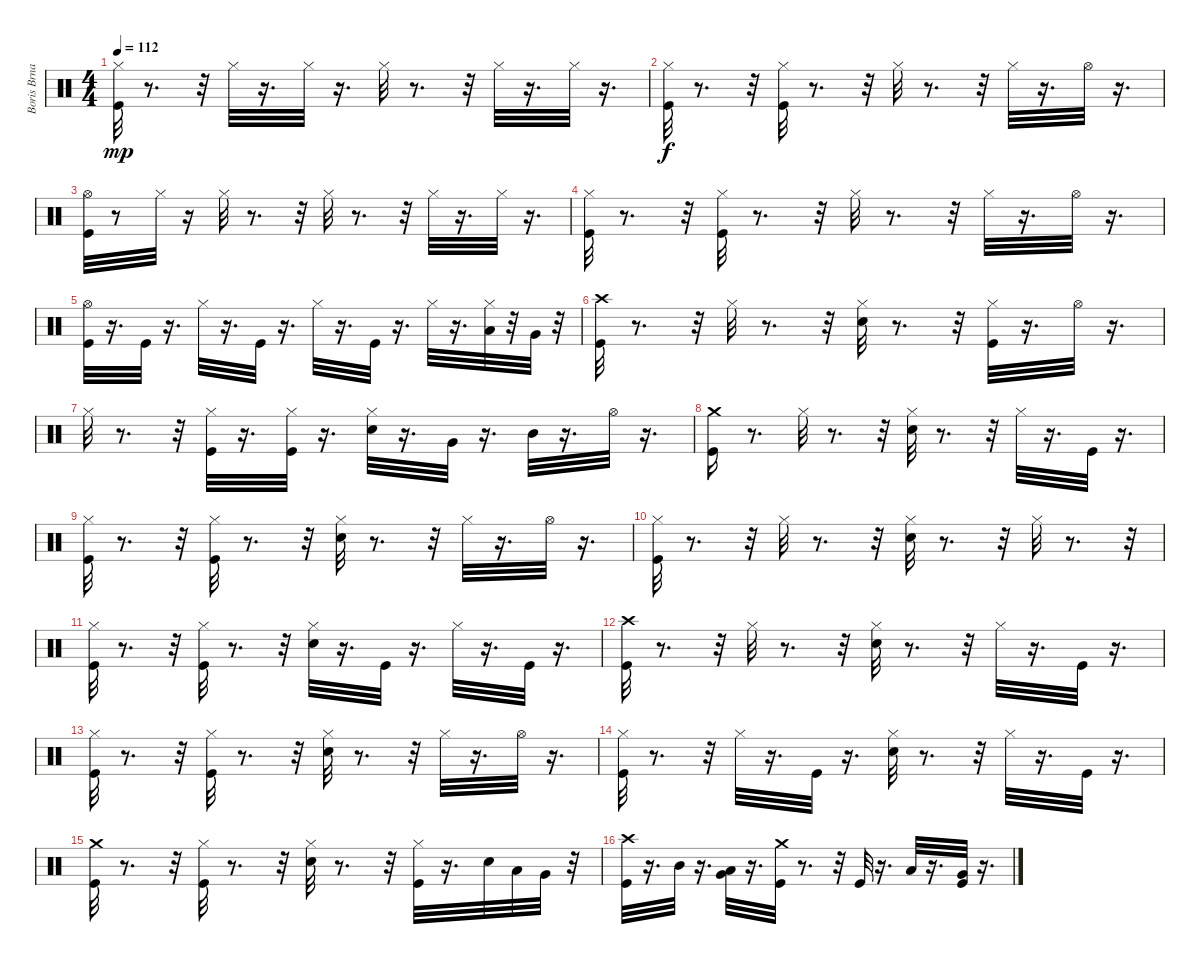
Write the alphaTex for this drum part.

\track ("Boris Brna (Drums)" "Boris Brna") {instrument percussion}
\staff {score}
\articulation defaults
\ts (4 4)
\tempo 112
\clef neutral
\ks c
("Kick (hit)" "Hi-Hat (closed)").32{dy mp} r.8{d} r.32 "Hi-Hat (closed)".32 r.16{d} "Hi-Hat (closed)".32 r.16{d} "Hi-Hat (closed)".32 r.8{d} r.32 "Hi-Hat (closed)".32 r.16{d} "Hi-Hat (closed)".32 r.16{d} |
("Kick (hit)" "Hi-Hat (closed)").32{dy f} r.8{d} r.32 ("Kick (hit)" "Hi-Hat (closed)").32 r.8{d} r.32 "Hi-Hat (closed)".32 r.8{d} r.32 "Hi-Hat (closed)".32 r.16{d} "Hi-Hat (open)".32 r.16{d} |
("Kick (hit)" "Hi-Hat (open)").32 r.8 "Hi-Hat (closed)".32 r.16 "Hi-Hat (closed)".32 r.8{d} r.32 "Hi-Hat (closed)".32 r.8{d} r.32 "Hi-Hat (closed)".32 r.16{d} "Hi-Hat (closed)".32 r.16{d} |
("Kick (hit)" "Hi-Hat (closed)").32 r.8{d} r.32 ("Kick (hit)" "Hi-Hat (closed)").32 r.8{d} r.32 "Hi-Hat (closed)".32 r.8{d} r.32 "Hi-Hat (closed)".32 r.16{d} "Hi-Hat (open)".32 r.16{d} |
("Kick (hit)" "Hi-Hat (open)").32 r.16{d} "Kick (hit)".32 r.16{d} "Hi-Hat (closed)".32 r.16{d} "Kick (hit)".32 r.16{d} "Hi-Hat (closed)".32 r.16{d} "Kick (hit)".32 r.16{d} "Hi-Hat (closed)".32 r.16{d} ("Hi-Hat (closed)" "Low Tom (hit)").32 r.32 "Very Low Tom (hit)".32 r.32 |
("Kick (hit)" "Crash high (hit)").32 r.8{d} r.32 "Hi-Hat (closed)".32 r.8{d} r.32 ("Snare (hit) 2" "Hi-Hat (closed)").32 r.8{d} r.32 ("Kick (hit)" "Hi-Hat (closed)").32 r.16{d} "Hi-Hat (open)".32 r.16{d} |
"Hi-Hat (closed)".32 r.8{d} r.32 ("Kick (hit)" "Hi-Hat (closed)").32 r.16{d} ("Kick (hit)" "Hi-Hat (closed)").32 r.16{d} ("Hi-Hat (closed)" "Snare (hit) 2").32 r.16{d} "Very Low Tom (hit)".32 r.16{d} "Mid Tom (hit)".32 r.16{d} "Hi-Hat (open)".32 r.16{d} |
("Kick (hit)" "Crash medium (hit)").16 r.8{d} "Hi-Hat (closed)".32 r.8{d} r.32 ("Hi-Hat (closed)" "Snare (hit) 2").32 r.8{d} r.32 "Hi-Hat (closed)".32 r.16{d} "Kick (hit)".32 r.16{d} |
("Kick (hit)" "Hi-Hat (closed)").32 r.8{d} r.32 ("Kick (hit)" "Hi-Hat (closed)").32 r.8{d} r.32 ("Snare (hit) 2" "Hi-Hat (closed)").32 r.8{d} r.32 "Hi-Hat (closed)".32 r.16{d} "Hi-Hat (open)".32 r.16{d} |
("Kick (hit)" "Hi-Hat (closed)").32 r.8{d} r.32 "Hi-Hat (closed)".32 r.8{d} r.32 ("Hi-Hat (closed)" "Snare (hit) 2").32 r.8{d} r.32 "Hi-Hat (closed)".32 r.8{d} r.32 |
("Kick (hit)" "Hi-Hat (closed)").32 r.8{d} r.32 ("Kick (hit)" "Hi-Hat (closed)").32 r.8{d} r.32 ("Snare (hit) 2" "Hi-Hat (closed)").32 r.16{d} "Kick (hit)".32 r.16{d} "Hi-Hat (closed)".32 r.16{d} "Kick (hit)".32 r.16{d} |
("Kick (hit)" "Crash high (hit)").32 r.8{d} r.32 "Hi-Hat (closed)".32 r.8{d} r.32 ("Hi-Hat (closed)" "Snare (hit) 2").32 r.8{d} r.32 "Hi-Hat (closed)".32 r.16{d} "Kick (hit)".32 r.16{d} |
("Kick (hit)" "Hi-Hat (closed)").32 r.8{d} r.32 ("Kick (hit)" "Hi-Hat (closed)").32 r.8{d} r.32 ("Snare (hit) 2" "Hi-Hat (closed)").32 r.8{d} r.32 "Hi-Hat (closed)".32 r.16{d} "Hi-Hat (open)".32 r.16{d} |
("Kick (hit)" "Hi-Hat (closed)").32 r.8{d} r.32 "Hi-Hat (closed)".32 r.16{d} "Kick (hit)".32 r.16{d} ("Hi-Hat (closed)" "Snare (hit) 2").32 r.8{d} r.32 "Hi-Hat (closed)".32 r.16{d} "Kick (hit)".32 r.16{d} |
("Kick (hit)" "Crash medium (hit)").32 r.8{d} r.32 ("Kick (hit)" "Hi-Hat (closed)").32 r.8{d} r.32 ("Snare (hit) 2" "Hi-Hat (closed)").32 r.8{d} r.32 ("Hi-Hat (closed)" "Kick (hit)").32 r.16{d} "Snare (hit) 2".32 "Low Tom (hit)".32 "Very Low Tom (hit)".32 r.32 |
("Kick (hit)" "Crash high (hit)").32 r.16{d} "Mid Tom (hit)".32 r.16{d} ("Low Tom (hit)" "Very Low Tom (hit)").32 r.16{d} ("Kick (hit)" "Crash medium (hit)").32 r.8{d} r.32 "Kick (hit)".32 r.16{d} "Low Tom (hit)".32 r.16{d} ("Very Low Tom (hit)" "Kick (hit)").32 r.16{d}
